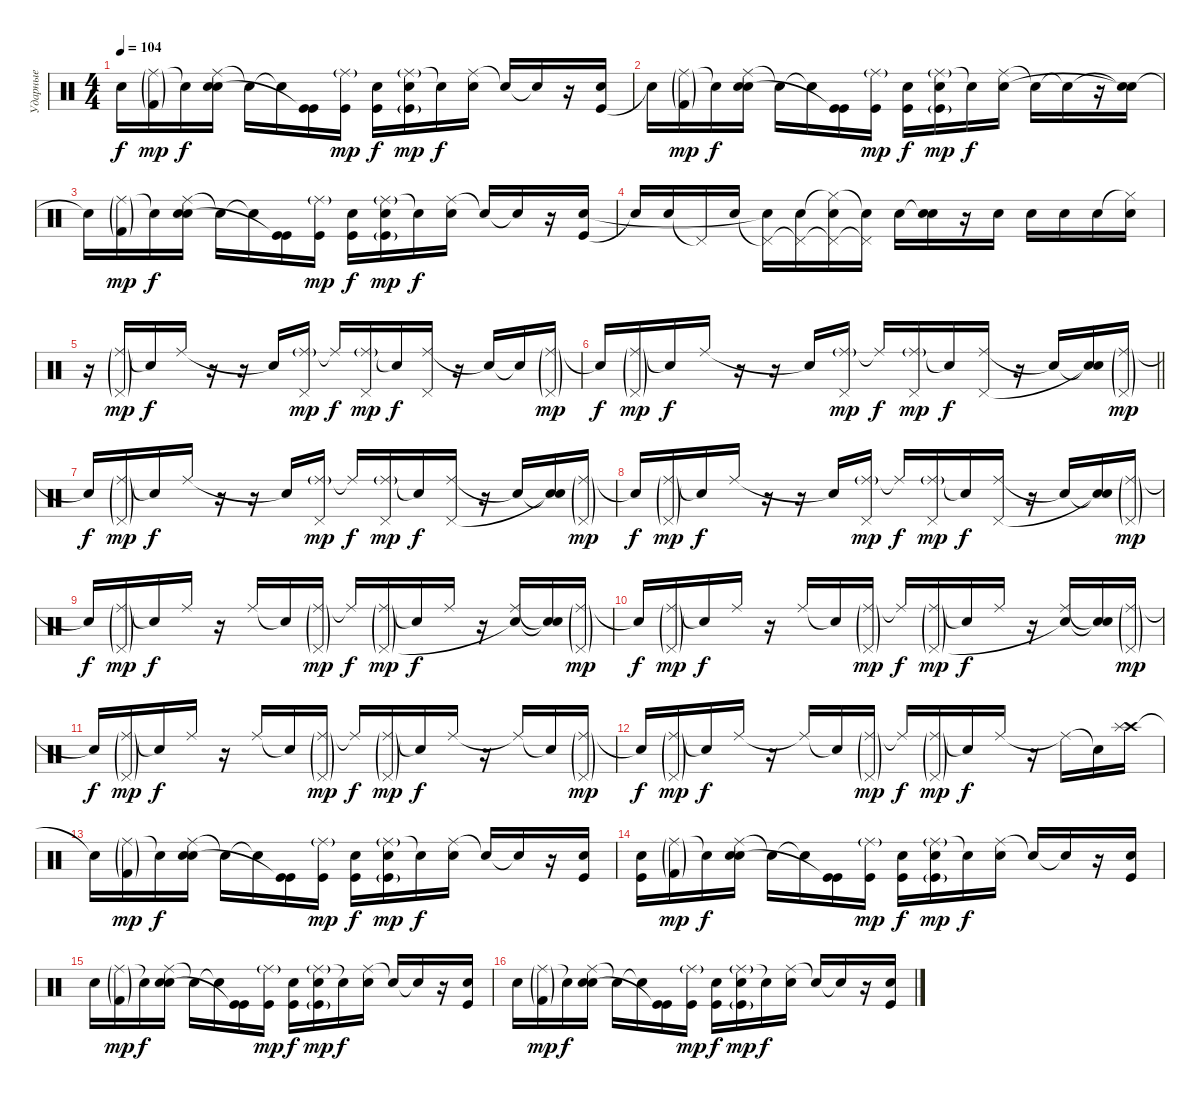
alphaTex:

\track ("Ударные" "Ударные") {instrument percussion}
\staff {score}
\articulation defaults
\ts (4 4)
\tempo 104
\clef neutral
\ks c "Snare (hit) 2"{t}.16{dy f}
("Ride (middle)"{g} "Kick (hit) 2"{g}).16{dy mp} "Electric Snare (hit)"{t}.16{dy f} ("Ride (middle)" "Snare (hit) 2" "Snare (hit) 2").16 "Electric Snare (hit)"{t}.16 "Electric Snare (hit)"{t}.16 ("Kick (hit)" "Kick (hit)"{t}).16 ("Ride (middle)"{g} "Kick (hit)").16{dy mp} ("Snare (hit) 2" "Kick (hit)").16{dy f} ("Ride (middle)"{g} "Snare (hit) 2" "Kick (hit)"{g}).16{dy mp} "Electric Snare (hit)"{t}.16{dy f} ("Ride (middle)" "Snare (hit) 2").16 "Electric Snare (hit)"{t}.16 "Electric Snare (hit)"{t}.16 r.16 ("Kick (hit)" "Snare (hit) 2").16 |
"Snare (hit) 2"{t}.16 ("Ride (middle)"{g} "Kick (hit) 2"{g}).16{dy mp} "Electric Snare (hit)"{t}.16{dy f} ("Ride (middle)" "Snare (hit) 2" "Snare (hit) 2").16 "Electric Snare (hit)"{t}.16 "Electric Snare (hit)"{t}.16 ("Kick (hit)" "Kick (hit)"{t}).16 ("Ride (middle)"{g} "Kick (hit)").16{dy mp} ("Snare (hit) 2" "Kick (hit)").16{dy f} ("Ride (middle)"{g} "Snare (hit) 2" "Kick (hit)"{g}).16{dy mp} "Electric Snare (hit)"{t}.16{dy f} ("Ride (middle)" "Snare (hit) 2").16 "Electric Snare (hit)"{t}.16 "Electric Snare (hit)"{t}.16 r.16 ("Snare (hit)"{t} "Snare (hit)"{t}).16 |
"Snare (hit) 2"{t}.16 ("Ride (middle)"{g} "Kick (hit) 2"{g}).16{dy mp} "Electric Snare (hit)"{t}.16{dy f} ("Ride (middle)" "Snare (hit) 2" "Snare (hit) 2").16 "Electric Snare (hit)"{t}.16 "Electric Snare (hit)"{t}.16 ("Kick (hit)" "Kick (hit)"{t}).16 ("Ride (middle)"{g} "Kick (hit)").16{dy mp} ("Snare (hit) 2" "Kick (hit)").16{dy f} ("Ride (middle)"{g} "Snare (hit) 2" "Kick (hit)"{g}).16{dy mp} "Electric Snare (hit)"{t}.16{dy f} ("Ride (middle)" "Snare (hit) 2").16 "Electric Snare (hit)"{t}.16 "Electric Snare (hit)"{t}.16 r.16 ("Kick (hit)" "Snare (hit) 2").16 |
"Snare (hit)"{t}.16 "Snare (hit) 2".16 "Pedal Hi-Hat (hit)"{t}.16 "Snare (hit) 2".16 ("Pedal Hi-Hat (hit)"{t} "Snare (hit) 2"{t}).16 ("Pedal Hi-Hat (hit)"{t} "Electric Snare (hit)").16 ("Pedal Hi-Hat (hit)"{t} "Hi-Hat (closed)"{t} "Snare (hit) 2").16 ("Pedal Hi-Hat (hit)"{t} "Snare (hit)"{t}).16 "Electric Snare (hit)".16 ("Snare (hit)"{t} "Snare (hit) 2").16 r.16 "Electric Snare (hit)".16 "Electric Snare (hit)".16 "Snare (hit) 2".16 "Snare (hit) 2".16 ("Hi-Hat (closed)"{t} "Snare (hit) 2").16 |
r.16 ("Ride (middle)"{g} "Pedal Hi-Hat (hit)"{g}).16{dy mp} "Snare (hit)"{t}.16{dy f} "Ride (middle)".16 r.16 r.16 "Snare (hit)"{t}.16 ("Ride (middle)"{g} "Pedal Hi-Hat (hit)").16{dy mp} "Ride (middle)"{t}.16{dy f} ("Ride (middle)"{g} "Pedal Hi-Hat (hit)").16{dy mp} "Snare (hit)"{t}.16{dy f} ("Ride (middle)" "Pedal Hi-Hat (hit)").16 r.16 "Snare (hit)"{t}.16 "Snare (hit)"{t}.16 ("Ride (middle)"{g} "Pedal Hi-Hat (hit)"{g}).16{dy mp} |
\barLineRight lightlight "Snare (hit)"{t}.16{dy f}
("Ride (middle)"{g} "Pedal Hi-Hat (hit)"{g}).16{dy mp} "Snare (hit)"{t}.16{dy f} "Ride (middle)".16 r.16 r.16 "Snare (hit)"{t}.16 ("Ride (middle)"{g} "Pedal Hi-Hat (hit)").16{dy mp} "Ride (middle)"{t}.16{dy f} ("Ride (middle)"{g} "Pedal Hi-Hat (hit)").16{dy mp} "Snare (hit)"{t}.16{dy f} ("Ride (middle)" "Pedal Hi-Hat (hit)").16 r.16 "Snare (hit)"{t}.16 ("Snare (hit)"{t} "Snare (hit)"{t}).16 ("Ride (middle)"{g} "Pedal Hi-Hat (hit)"{g}).16{dy mp} |
"Snare (hit)"{t}.16{dy f} ("Ride (middle)"{g} "Pedal Hi-Hat (hit)"{g}).16{dy mp} "Snare (hit)"{t}.16{dy f} "Ride (middle)".16 r.16 r.16 "Snare (hit)"{t}.16 ("Ride (middle)"{g} "Pedal Hi-Hat (hit)").16{dy mp} "Ride (middle)"{t}.16{dy f} ("Ride (middle)"{g} "Pedal Hi-Hat (hit)").16{dy mp} "Snare (hit)"{t}.16{dy f} ("Ride (middle)" "Pedal Hi-Hat (hit)").16 r.16 "Snare (hit)"{t}.16 ("Snare (hit)"{t} "Snare (hit)"{t}).16 ("Ride (middle)"{g} "Pedal Hi-Hat (hit)"{g}).16{dy mp} |
"Snare (hit)"{t}.16{dy f} ("Ride (middle)"{g} "Pedal Hi-Hat (hit)"{g}).16{dy mp} "Snare (hit)"{t}.16{dy f} "Ride (middle)".16 r.16 r.16 "Snare (hit)"{t}.16 ("Ride (middle)"{g} "Pedal Hi-Hat (hit)").16{dy mp} "Ride (middle)"{t}.16{dy f} ("Ride (middle)"{g} "Pedal Hi-Hat (hit)").16{dy mp} "Snare (hit)"{t}.16{dy f} ("Ride (middle)" "Pedal Hi-Hat (hit)").16 r.16 "Snare (hit)"{t}.16 ("Snare (hit)"{t} "Snare (hit)"{t}).16 ("Ride (middle)"{g} "Pedal Hi-Hat (hit)"{g}).16{dy mp} |
"Snare (hit)"{t}.16{dy f} ("Ride (middle)"{g} "Pedal Hi-Hat (hit)"{g}).16{dy mp} "Snare (hit)"{t}.16{dy f} "Ride (middle)".16 r.16 "Ride (middle)".16 "Snare (hit)"{t}.16 ("Ride (middle)"{g} "Pedal Hi-Hat (hit)"{g}).16{dy mp} "Ride (middle)"{t}.16{dy f} ("Ride (middle)"{g} "Pedal Hi-Hat (hit)"{g}).16{dy mp} "Snare (hit)"{t}.16{dy f} "Ride (middle)".16 r.16 ("Ride (middle)" "Snare (hit)"{t}).16 ("Snare (hit)"{t} "Snare (hit)"{t}).16 ("Ride (middle)"{g} "Pedal Hi-Hat (hit)"{g}).16{dy mp} |
"Snare (hit)"{t}.16{dy f} ("Ride (middle)"{g} "Pedal Hi-Hat (hit)"{g}).16{dy mp} "Snare (hit)"{t}.16{dy f} "Ride (middle)".16 r.16 "Ride (middle)".16 "Snare (hit)"{t}.16 ("Ride (middle)"{g} "Pedal Hi-Hat (hit)"{g}).16{dy mp} "Ride (middle)"{t}.16{dy f} ("Ride (middle)"{g} "Pedal Hi-Hat (hit)"{g}).16{dy mp} "Snare (hit)"{t}.16{dy f} "Ride (middle)".16 r.16 ("Ride (middle)" "Snare (hit)"{t}).16 ("Snare (hit)"{t} "Snare (hit)"{t}).16 ("Ride (middle)"{g} "Pedal Hi-Hat (hit)"{g}).16{dy mp} |
"Snare (hit)"{t}.16{dy f} ("Ride (middle)"{g} "Pedal Hi-Hat (hit)"{g}).16{dy mp} "Snare (hit)"{t}.16{dy f} "Ride (middle)".16 r.16 "Ride (middle)".16 "Snare (hit)"{t}.16 ("Ride (middle)"{g} "Pedal Hi-Hat (hit)"{g}).16{dy mp} "Ride (middle)"{t}.16{dy f} ("Ride (middle)"{g} "Pedal Hi-Hat (hit)"{g}).16{dy mp} "Snare (hit)"{t}.16{dy f} "Ride (middle)".16 r.16 "Ride (middle)"{t}.16 "Snare (hit)"{t}.16 ("Ride (middle)"{g} "Pedal Hi-Hat (hit)"{g}).16{dy mp} |
"Snare (hit)"{t}.16{dy f} ("Ride (middle)"{g} "Pedal Hi-Hat (hit)"{g}).16{dy mp} "Snare (hit)"{t}.16{dy f} "Ride (middle)".16 r.16 "Ride (middle)"{t}.16 "Snare (hit)"{t}.16 ("Ride (middle)"{g} "Pedal Hi-Hat (hit)"{g}).16{dy mp} "Ride (middle)"{t}.16{dy f} ("Ride (middle)"{g} "Pedal Hi-Hat (hit)"{g}).16{dy mp} "Snare (hit)"{t}.16{dy f} "Ride (middle)".16 r.16 "Ride (middle)"{t}.16 "Snare (hit)"{t}.16 ("Crash high (hit)" "Splash (hit)").16 |
"Snare (hit) 2"{t}.16 ("Ride (middle)"{g} "Kick (hit) 2"{g}).16{dy mp} "Electric Snare (hit)"{t}.16{dy f} ("Ride (middle)" "Snare (hit) 2" "Snare (hit) 2").16 "Electric Snare (hit)"{t}.16 "Electric Snare (hit)"{t}.16 ("Kick (hit)" "Kick (hit)"{t}).16 ("Ride (middle)"{g} "Kick (hit)").16{dy mp} ("Snare (hit) 2" "Kick (hit)").16{dy f} ("Ride (middle)"{g} "Snare (hit) 2" "Kick (hit)"{g}).16{dy mp} "Electric Snare (hit)"{t}.16{dy f} ("Ride (middle)" "Snare (hit) 2").16 "Electric Snare (hit)"{t}.16 "Electric Snare (hit)"{t}.16 r.16 ("Kick (hit)" "Snare (hit) 2").16 |
("Kick (hit)" "Snare (hit) 2").16 ("Ride (middle)"{g} "Kick (hit) 2"{g}).16{dy mp} "Electric Snare (hit)"{t}.16{dy f} ("Ride (middle)" "Snare (hit) 2" "Snare (hit) 2").16 "Electric Snare (hit)"{t}.16 "Electric Snare (hit)"{t}.16 ("Kick (hit)" "Kick (hit)"{t}).16 ("Ride (middle)"{g} "Kick (hit)").16{dy mp} ("Snare (hit) 2" "Kick (hit)").16{dy f} ("Ride (middle)"{g} "Snare (hit) 2" "Kick (hit)"{g}).16{dy mp} "Electric Snare (hit)"{t}.16{dy f} ("Ride (middle)" "Snare (hit) 2").16 "Electric Snare (hit)"{t}.16 "Electric Snare (hit)"{t}.16 r.16 ("Kick (hit)" "Snare (hit) 2").16 |
"Snare (hit) 2".16 ("Ride (middle)"{g} "Kick (hit) 2"{g}).16{dy mp} "Electric Snare (hit)"{t}.16{dy f} ("Ride (middle)" "Snare (hit) 2" "Snare (hit) 2").16 "Electric Snare (hit)"{t}.16 "Electric Snare (hit)"{t}.16 ("Kick (hit)" "Kick (hit)"{t}).16 ("Ride (middle)"{g} "Kick (hit)").16{dy mp} ("Snare (hit) 2" "Kick (hit)").16{dy f} ("Ride (middle)"{g} "Snare (hit) 2" "Kick (hit)"{g}).16{dy mp} "Electric Snare (hit)"{t}.16{dy f} ("Ride (middle)" "Snare (hit) 2").16 "Electric Snare (hit)"{t}.16 "Electric Snare (hit)"{t}.16 r.16 ("Kick (hit)" "Snare (hit) 2").16 |
"Snare (hit) 2".16 ("Ride (middle)"{g} "Kick (hit) 2"{g}).16{dy mp} "Electric Snare (hit)"{t}.16{dy f} ("Ride (middle)" "Snare (hit) 2" "Snare (hit) 2").16 "Electric Snare (hit)"{t}.16 "Electric Snare (hit)"{t}.16 ("Kick (hit)" "Kick (hit)"{t}).16 ("Ride (middle)"{g} "Kick (hit)").16{dy mp} ("Snare (hit) 2" "Kick (hit)").16{dy f} ("Ride (middle)"{g} "Snare (hit) 2" "Kick (hit)"{g}).16{dy mp} "Electric Snare (hit)"{t}.16{dy f} ("Ride (middle)" "Snare (hit) 2").16 "Electric Snare (hit)"{t}.16 "Electric Snare (hit)"{t}.16 r.16 ("Kick (hit)" "Snare (hit) 2").16
